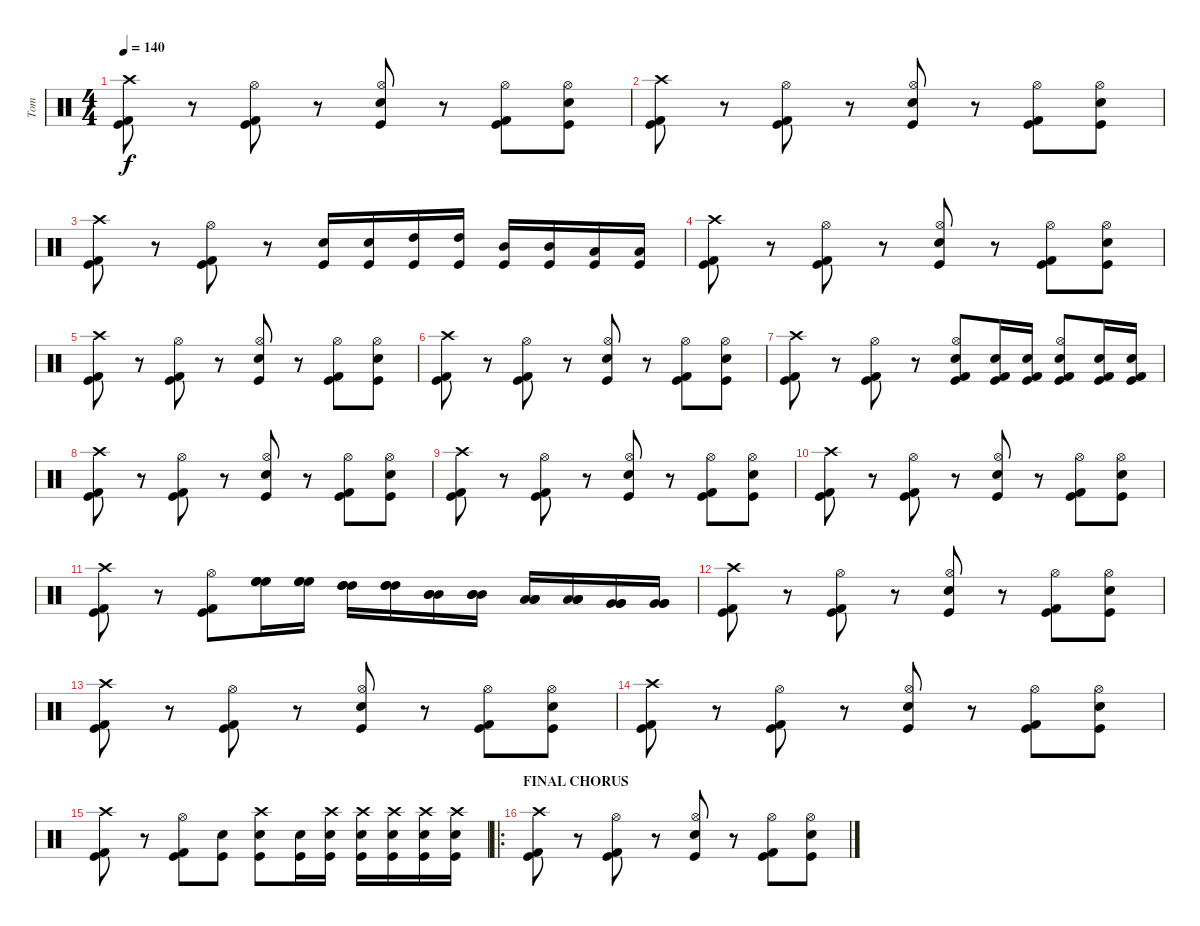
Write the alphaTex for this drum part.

\track ("Tom" "Tom") {instrument percussion}
\staff {score}
\articulation defaults
\ts (4 4)
\tempo 140
\clef neutral
\ks c
("Crash high (hit)" "Kick (hit)" "Kick (hit) 2").8{dy f} r.8 ("Hi-Hat (open)" "Kick (hit)" "Kick (hit) 2").8 r.8 ("Hi-Hat (open)" "Kick (hit)" "Electric Snare (hit)").8 r.8 ("Hi-Hat (open)" "Kick (hit)" "Kick (hit) 2").8 ("Hi-Hat (open)" "Kick (hit)" "Electric Snare (hit)").8 |
("Crash high (hit)" "Kick (hit)" "Kick (hit) 2").8 r.8 ("Hi-Hat (open)" "Kick (hit)" "Kick (hit) 2").8 r.8 ("Hi-Hat (open)" "Kick (hit)" "Electric Snare (hit)").8 r.8 ("Hi-Hat (open)" "Kick (hit)" "Kick (hit) 2").8 ("Hi-Hat (open)" "Kick (hit)" "Electric Snare (hit)").8 |
("Crash high (hit)" "Kick (hit)" "Kick (hit) 2").8 r.8 ("Hi-Hat (open)" "Kick (hit)" "Kick (hit) 2").8 r.8 ("Kick (hit)" "Electric Snare (hit)").16 ("Kick (hit)" "Electric Snare (hit)").16 ("Kick (hit)" "High Tom (hit)").16 ("Kick (hit)" "High Tom (hit)").16 ("Kick (hit)" "Mid Tom (hit)").16 ("Kick (hit)" "Mid Tom (hit)").16 ("Kick (hit)" "Low Tom (hit)").16 ("Kick (hit)" "Low Tom (hit)").16 |
("Crash high (hit)" "Kick (hit)" "Kick (hit) 2").8 r.8 ("Hi-Hat (open)" "Kick (hit)" "Kick (hit) 2").8 r.8 ("Hi-Hat (open)" "Kick (hit)" "Electric Snare (hit)").8 r.8 ("Hi-Hat (open)" "Kick (hit)" "Kick (hit) 2").8 ("Hi-Hat (open)" "Kick (hit)" "Electric Snare (hit)").8 |
("Crash high (hit)" "Kick (hit)" "Kick (hit) 2").8 r.8 ("Hi-Hat (open)" "Kick (hit)" "Kick (hit) 2").8 r.8 ("Hi-Hat (open)" "Kick (hit)" "Electric Snare (hit)").8 r.8 ("Hi-Hat (open)" "Kick (hit)" "Kick (hit) 2").8 ("Hi-Hat (open)" "Kick (hit)" "Electric Snare (hit)").8 |
("Crash high (hit)" "Kick (hit)" "Kick (hit) 2").8 r.8 ("Hi-Hat (open)" "Kick (hit)" "Kick (hit) 2").8 r.8 ("Hi-Hat (open)" "Kick (hit)" "Electric Snare (hit)").8 r.8 ("Hi-Hat (open)" "Kick (hit)" "Kick (hit) 2").8 ("Hi-Hat (open)" "Kick (hit)" "Electric Snare (hit)").8 |
("Crash high (hit)" "Kick (hit)" "Kick (hit) 2").8 r.8 ("Hi-Hat (open)" "Kick (hit)" "Kick (hit) 2").8 r.8 ("Hi-Hat (open)" "Kick (hit) 2" "Kick (hit)" "Electric Snare (hit)").8 ("Kick (hit) 2" "Kick (hit)" "Electric Snare (hit)").16 ("Kick (hit) 2" "Kick (hit)" "Electric Snare (hit)").16 ("Hi-Hat (open)" "Kick (hit) 2" "Kick (hit)" "Electric Snare (hit)").8 ("Kick (hit) 2" "Kick (hit)" "Electric Snare (hit)").16 ("Kick (hit) 2" "Kick (hit)" "Electric Snare (hit)").16 |
("Crash high (hit)" "Kick (hit)" "Kick (hit) 2").8 r.8 ("Hi-Hat (open)" "Kick (hit)" "Kick (hit) 2").8 r.8 ("Hi-Hat (open)" "Kick (hit)" "Electric Snare (hit)").8 r.8 ("Hi-Hat (open)" "Kick (hit)" "Kick (hit) 2").8 ("Hi-Hat (open)" "Kick (hit)" "Electric Snare (hit)").8 |
("Crash high (hit)" "Kick (hit)" "Kick (hit) 2").8 r.8 ("Hi-Hat (open)" "Kick (hit)" "Kick (hit) 2").8 r.8 ("Hi-Hat (open)" "Kick (hit)" "Electric Snare (hit)").8 r.8 ("Hi-Hat (open)" "Kick (hit)" "Kick (hit) 2").8 ("Hi-Hat (open)" "Kick (hit)" "Electric Snare (hit)").8 |
("Crash high (hit)" "Kick (hit)" "Kick (hit) 2").8 r.8 ("Hi-Hat (open)" "Kick (hit)" "Kick (hit) 2").8 r.8 ("Hi-Hat (open)" "Kick (hit)" "Electric Snare (hit)").8 r.8 ("Hi-Hat (open)" "Kick (hit)" "Kick (hit) 2").8 ("Hi-Hat (open)" "Kick (hit)" "Electric Snare (hit)").8 |
("Crash high (hit)" "Kick (hit)" "Kick (hit) 2").8 r.8 ("Hi-Hat (open)" "Kick (hit)" "Kick (hit) 2").8 ("High Floor Tom (hit)" "High Floor Tom (hit)" "High Floor Tom (hit)").16 ("High Floor Tom (hit)" "High Floor Tom (hit)" "High Floor Tom (hit)").16 ("High Tom (hit)" "High Tom (hit)" "High Tom (hit)").16 ("High Tom (hit)" "High Tom (hit)" "High Tom (hit)").16 ("Mid Tom (hit)" "Mid Tom (hit)" "Mid Tom (hit)").16 ("Mid Tom (hit)" "Mid Tom (hit)" "Mid Tom (hit)").16 ("Low Tom (hit)" "Low Tom (hit)" "Low Tom (hit)").16 ("Low Tom (hit)" "Low Tom (hit)" "Low Tom (hit)").16 ("Very Low Tom (hit)" "Very Low Tom (hit)" "Very Low Tom (hit)").16 ("Very Low Tom (hit)" "Very Low Tom (hit)" "Very Low Tom (hit)").16 |
("Crash high (hit)" "Kick (hit)" "Kick (hit) 2").8 r.8 ("Hi-Hat (open)" "Kick (hit)" "Kick (hit) 2").8 r.8 ("Hi-Hat (open)" "Kick (hit)" "Electric Snare (hit)").8 r.8 ("Hi-Hat (open)" "Kick (hit)" "Kick (hit) 2").8 ("Hi-Hat (open)" "Kick (hit)" "Electric Snare (hit)").8 |
("Crash high (hit)" "Kick (hit)" "Kick (hit) 2").8 r.8 ("Hi-Hat (open)" "Kick (hit)" "Kick (hit) 2").8 r.8 ("Hi-Hat (open)" "Kick (hit)" "Electric Snare (hit)").8 r.8 ("Hi-Hat (open)" "Kick (hit)" "Kick (hit) 2").8 ("Hi-Hat (open)" "Kick (hit)" "Electric Snare (hit)").8 |
("Crash high (hit)" "Kick (hit)" "Kick (hit) 2").8 r.8 ("Hi-Hat (open)" "Kick (hit)" "Kick (hit) 2").8 r.8 ("Hi-Hat (open)" "Kick (hit)" "Electric Snare (hit)").8 r.8 ("Hi-Hat (open)" "Kick (hit)" "Kick (hit) 2").8 ("Hi-Hat (open)" "Kick (hit)" "Electric Snare (hit)").8 |
("Crash high (hit)" "Kick (hit)" "Kick (hit) 2").8 r.8 ("Hi-Hat (open)" "Kick (hit)" "Kick (hit) 2").8 ("Kick (hit)" "Electric Snare (hit)").8 ("Crash high (hit)" "Kick (hit)" "Electric Snare (hit)").8 ("Kick (hit)" "Electric Snare (hit)").16 ("Crash high (hit)" "Kick (hit)" "Electric Snare (hit)").16 ("Crash high (hit)" "Kick (hit)" "Electric Snare (hit)").16 ("Crash high (hit)" "Kick (hit)" "Electric Snare (hit)").16 ("Crash high (hit)" "Kick (hit)" "Electric Snare (hit)").16 ("Crash high (hit)" "Kick (hit)" "Electric Snare (hit)").16 |
\ro
\section ("" "FINAL CHORUS")
("Crash high (hit)" "Kick (hit)" "Kick (hit) 2").8 r.8 ("Hi-Hat (open)" "Kick (hit)" "Kick (hit) 2").8 r.8 ("Hi-Hat (open)" "Kick (hit)" "Electric Snare (hit)").8 r.8 ("Hi-Hat (open)" "Kick (hit)" "Kick (hit) 2").8 ("Hi-Hat (open)" "Kick (hit)" "Electric Snare (hit)").8
